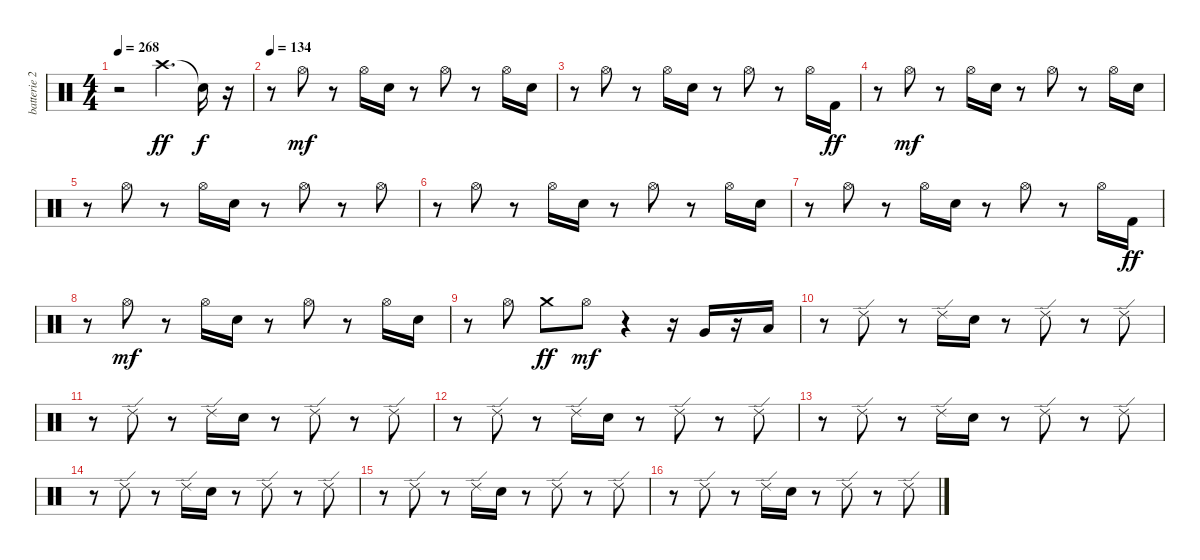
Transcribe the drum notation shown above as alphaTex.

\track ("batterie 2" "batterie 2") {instrument percussion}
\staff {score}
\articulation defaults
\ts (4 4)
\tempo 268
\clef neutral
\ks c
r.2{dy f} "Crash high (hit)".4{d dy ff} "Snare (hit)"{t}.16{dy f} r.16 |
\tempo 134
r.8 "Hi-Hat (open)".8{dy mf} r.8 "Hi-Hat (open)".16 "Electric Snare (hit)".16 r.8 "Hi-Hat (open)".8 r.8 "Hi-Hat (open)".16 "Electric Snare (hit)".16 |
r.8 "Hi-Hat (open)".8 r.8 "Hi-Hat (open)".16 "Electric Snare (hit)".16 r.8 "Hi-Hat (open)".8 r.8 "Hi-Hat (open)".16 "Kick (hit) 2".16{dy ff} |
r.8 "Hi-Hat (open)".8{dy mf} r.8 "Hi-Hat (open)".16 "Electric Snare (hit)".16 r.8 "Hi-Hat (open)".8 r.8 "Hi-Hat (open)".16 "Electric Snare (hit)".16 |
r.8 "Hi-Hat (open)".8 r.8 "Hi-Hat (open)".16 "Electric Snare (hit)".16 r.8 "Hi-Hat (open)".8 r.8 "Hi-Hat (open)".8 |
r.8 "Hi-Hat (open)".8 r.8 "Hi-Hat (open)".16 "Electric Snare (hit)".16 r.8 "Hi-Hat (open)".8 r.8 "Hi-Hat (open)".16 "Electric Snare (hit)".16 |
r.8 "Hi-Hat (open)".8 r.8 "Hi-Hat (open)".16 "Electric Snare (hit)".16 r.8 "Hi-Hat (open)".8 r.8 "Hi-Hat (open)".16 "Kick (hit) 2".16{dy ff} |
r.8 "Hi-Hat (open)".8{dy mf} r.8 "Hi-Hat (open)".16 "Electric Snare (hit)".16 r.8 "Hi-Hat (open)".8 r.8 "Hi-Hat (open)".16 "Electric Snare (hit)".16 |
r.8 "Hi-Hat (open)".8 "Crash medium (hit)".8{dy ff} "Hi-Hat (open)".8{dy mf} r.4 r.16 "Very Low Tom (hit)".16 r.16 "Low Floor Tom (hit)".16 |
r.8 "Ride (edge) 2".8 r.8 "Ride (edge) 2".16 "Electric Snare (hit)".16 r.8 "Ride (edge) 2".8 r.8 "Ride (edge) 2".8 |
r.8 "Ride (edge) 2".8 r.8 "Ride (edge) 2".16 "Electric Snare (hit)".16 r.8 "Ride (edge) 2".8 r.8 "Ride (edge) 2".8 |
r.8 "Ride (edge) 2".8 r.8 "Ride (edge) 2".16 "Electric Snare (hit)".16 r.8 "Ride (edge) 2".8 r.8 "Ride (edge) 2".8 |
r.8 "Ride (edge) 2".8 r.8 "Ride (edge) 2".16 "Electric Snare (hit)".16 r.8 "Ride (edge) 2".8 r.8 "Ride (edge) 2".8 |
r.8 "Ride (edge) 2".8 r.8 "Ride (edge) 2".16 "Electric Snare (hit)".16 r.8 "Ride (edge) 2".8 r.8 "Ride (edge) 2".8 |
r.8 "Ride (edge) 2".8 r.8 "Ride (edge) 2".16 "Electric Snare (hit)".16 r.8 "Ride (edge) 2".8 r.8 "Ride (edge) 2".8 |
r.8 "Ride (edge) 2".8 r.8 "Ride (edge) 2".16 "Electric Snare (hit)".16 r.8 "Ride (edge) 2".8 r.8 "Ride (edge) 2".8
